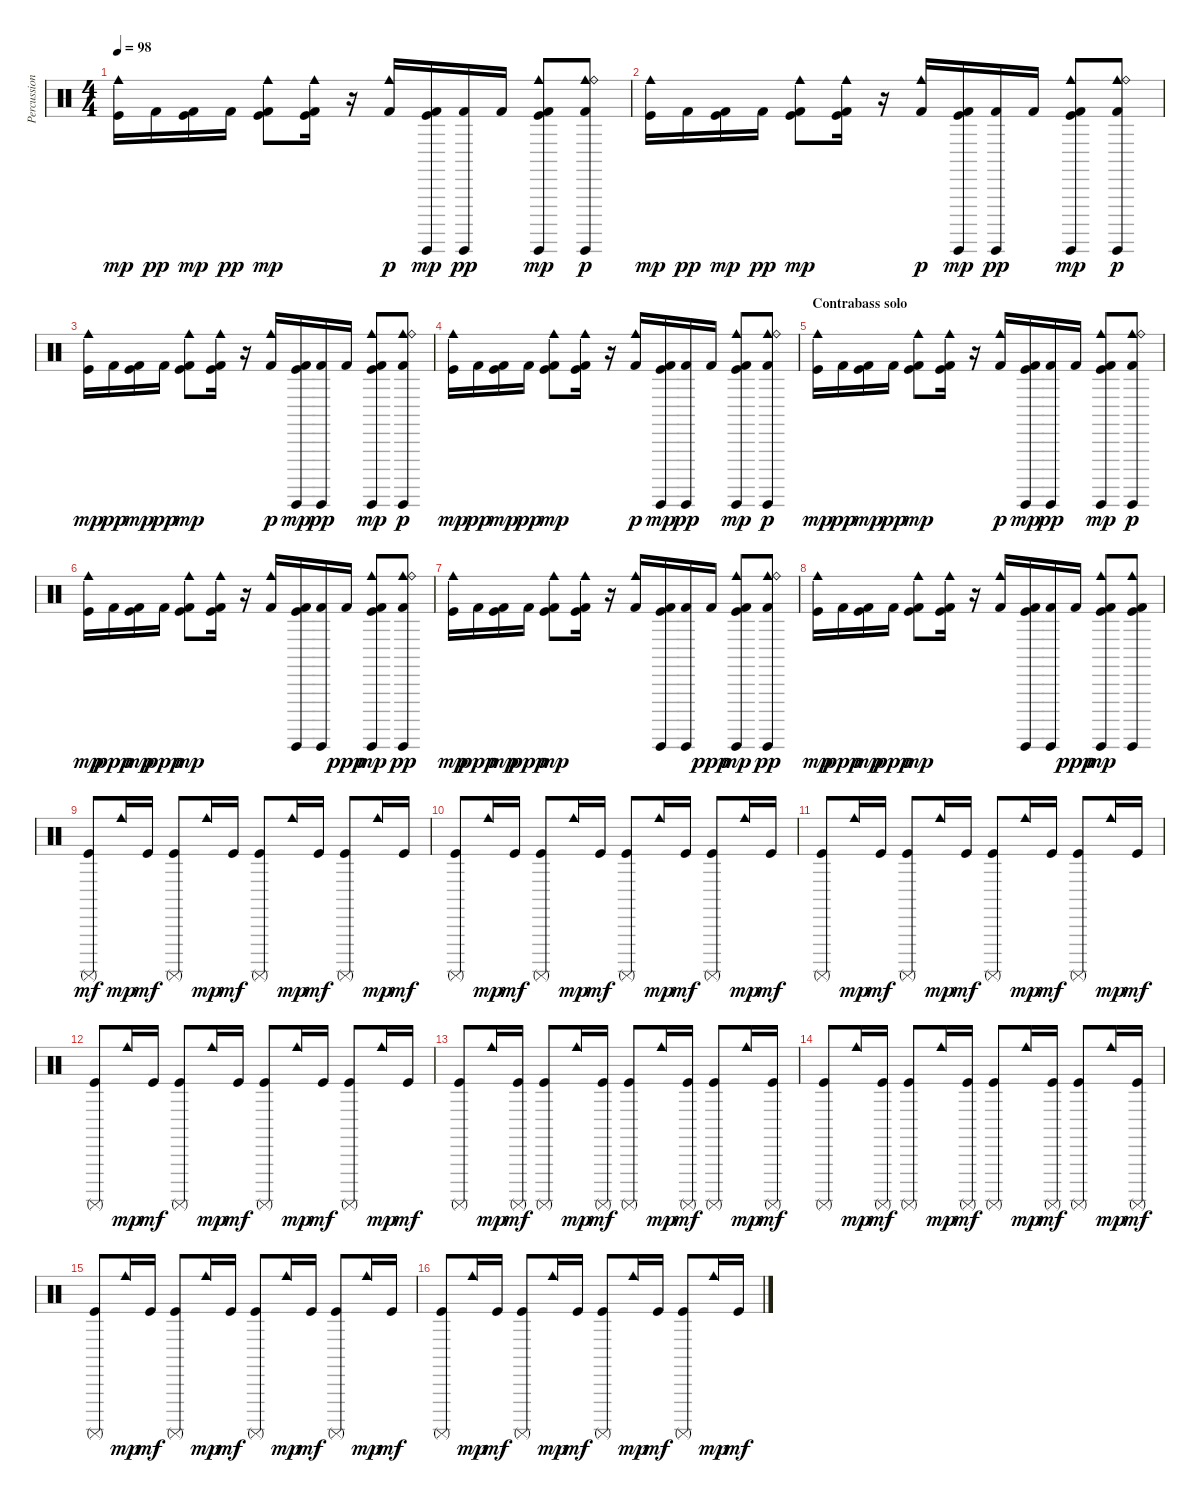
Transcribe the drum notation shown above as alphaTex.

\track ("Percussion" "Percussion") {instrument percussion}
\staff {score}
\articulation defaults
\ts (4 4)
\tempo 98
\clef neutral
\ks c
("Cowbell medium (hit)" "Kick (hit)").16{dy mp} "Kick (hit) 2".16{dy pp} ("Kick (hit) 2" "Kick (hit)").16{dy mp} "Kick (hit) 2".16{dy pp} ("Kick (hit) 2" "Cowbell medium (hit)" "Kick (hit)").8{dy mp} ("Kick (hit) 2" "Cowbell medium (hit)" "Kick (hit)").16 r.16 ("Kick (hit) 2" "Cowbell medium (hit)").16{dy p} ("Kick (hit) 2" "Guiro (hit)" "Kick (hit)").16{dy mp} ("Kick (hit) 2" "Guiro (hit)").16{dy pp} "Kick (hit) 2".16 ("Kick (hit) 2" "Cowbell medium (hit)" "Guiro (hit)" "Kick (hit)").8{dy mp} ("Kick (hit) 2" "Cowbell medium (hit)" "Guiro (hit)" "Ride (bell)").8{dy p} |
("Cowbell medium (hit)" "Kick (hit)").16{dy mp} "Kick (hit) 2".16{dy pp} ("Kick (hit) 2" "Kick (hit)").16{dy mp} "Kick (hit) 2".16{dy pp} ("Kick (hit) 2" "Cowbell medium (hit)" "Kick (hit)").8{dy mp} ("Kick (hit) 2" "Cowbell medium (hit)" "Kick (hit)").16 r.16 ("Kick (hit) 2" "Cowbell medium (hit)").16{dy p} ("Kick (hit) 2" "Guiro (hit)" "Kick (hit)").16{dy mp} ("Kick (hit) 2" "Guiro (hit)").16{dy pp} "Kick (hit) 2".16 ("Kick (hit) 2" "Cowbell medium (hit)" "Guiro (hit)" "Kick (hit)").8{dy mp} ("Kick (hit) 2" "Cowbell medium (hit)" "Guiro (hit)" "Ride (bell)").8{dy p} |
("Cowbell medium (hit)" "Kick (hit)").16{dy mp} "Kick (hit) 2".16{dy pp} ("Kick (hit) 2" "Kick (hit)").16{dy mp} "Kick (hit) 2".16{dy pp} ("Kick (hit) 2" "Cowbell medium (hit)" "Kick (hit)").8{dy mp} ("Kick (hit) 2" "Cowbell medium (hit)" "Kick (hit)").16 r.16 ("Kick (hit) 2" "Cowbell medium (hit)").16{dy p} ("Kick (hit) 2" "Guiro (hit)" "Kick (hit)").16{dy mp} ("Kick (hit) 2" "Guiro (hit)").16{dy pp} "Kick (hit) 2".16 ("Kick (hit) 2" "Cowbell medium (hit)" "Guiro (hit)" "Kick (hit)").8{dy mp} ("Kick (hit) 2" "Cowbell medium (hit)" "Guiro (hit)" "Ride (bell)").8{dy p} |
("Cowbell medium (hit)" "Kick (hit)").16{dy mp} "Kick (hit) 2".16{dy pp} ("Kick (hit) 2" "Kick (hit)").16{dy mp} "Kick (hit) 2".16{dy pp} ("Kick (hit) 2" "Cowbell medium (hit)" "Kick (hit)").8{dy mp} ("Kick (hit) 2" "Cowbell medium (hit)" "Kick (hit)").16 r.16 ("Kick (hit) 2" "Cowbell medium (hit)").16{dy p} ("Kick (hit) 2" "Guiro (hit)" "Kick (hit)").16{dy mp} ("Kick (hit) 2" "Guiro (hit)").16{dy pp} "Kick (hit) 2".16 ("Kick (hit) 2" "Cowbell medium (hit)" "Guiro (hit)" "Kick (hit)").8{dy mp} ("Kick (hit) 2" "Cowbell medium (hit)" "Guiro (hit)" "Ride (bell)").8{dy p} |
\section ("" "Contrabass solo")
("Cowbell medium (hit)" "Kick (hit)").16{dy mp} "Kick (hit) 2".16{dy pp} ("Kick (hit) 2" "Kick (hit)").16{dy mp} "Kick (hit) 2".16{dy pp} ("Kick (hit) 2" "Cowbell medium (hit)" "Kick (hit)").8{dy mp} ("Kick (hit) 2" "Cowbell medium (hit)" "Kick (hit)").16 r.16 ("Kick (hit) 2" "Cowbell medium (hit)").16{dy p} ("Kick (hit) 2" "Guiro (hit)" "Kick (hit)").16{dy mp} ("Kick (hit) 2" "Guiro (hit)").16{dy pp} "Kick (hit) 2".16 ("Kick (hit) 2" "Cowbell medium (hit)" "Guiro (hit)" "Kick (hit)").8{dy mp} ("Kick (hit) 2" "Cowbell medium (hit)" "Guiro (hit)" "Ride (bell)").8{dy p} |
("Cowbell medium (hit)" "Kick (hit)").16{dy mp} "Kick (hit) 2".16{dy ppp} ("Kick (hit) 2" "Kick (hit)").16{dy mp} "Kick (hit) 2".16{dy ppp} ("Kick (hit) 2" "Cowbell medium (hit)" "Kick (hit)").8{dy mp} ("Kick (hit) 2" "Cowbell medium (hit)" "Kick (hit)").16 r.16 ("Kick (hit) 2" "Cowbell medium (hit)").16 ("Kick (hit) 2" "Guiro (hit)" "Kick (hit)").16 ("Kick (hit) 2" "Guiro (hit)").16 "Kick (hit) 2".16{dy ppp} ("Kick (hit) 2" "Cowbell medium (hit)" "Guiro (hit)" "Kick (hit)").8{dy mp} ("Kick (hit) 2" "Cowbell medium (hit)" "Guiro (hit)" "Ride (bell)").8{dy pp} |
("Cowbell medium (hit)" "Kick (hit)").16{dy mp} "Kick (hit) 2".16{dy ppp} ("Kick (hit) 2" "Kick (hit)").16{dy mp} "Kick (hit) 2".16{dy ppp} ("Kick (hit) 2" "Cowbell medium (hit)" "Kick (hit)").8{dy mp} ("Kick (hit) 2" "Cowbell medium (hit)" "Kick (hit)").16 r.16 ("Kick (hit) 2" "Cowbell medium (hit)").16 ("Kick (hit) 2" "Guiro (hit)" "Kick (hit)").16 ("Kick (hit) 2" "Guiro (hit)").16 "Kick (hit) 2".16{dy ppp} ("Kick (hit) 2" "Cowbell medium (hit)" "Guiro (hit)" "Kick (hit)").8{dy mp} ("Kick (hit) 2" "Cowbell medium (hit)" "Guiro (hit)" "Ride (bell)").8{dy pp} |
("Cowbell medium (hit)" "Kick (hit)").16{dy mp} "Kick (hit) 2".16{dy ppp} ("Kick (hit) 2" "Kick (hit)").16{dy mp} "Kick (hit) 2".16{dy ppp} ("Kick (hit) 2" "Cowbell medium (hit)" "Kick (hit)").8{dy mp} ("Kick (hit) 2" "Cowbell medium (hit)" "Kick (hit)").16 r.16 ("Kick (hit) 2" "Cowbell medium (hit)").16 ("Kick (hit) 2" "Guiro (hit)" "Kick (hit)").16 ("Kick (hit) 2" "Guiro (hit)").16 "Kick (hit) 2".16{dy ppp} ("Kick (hit) 2" "Cowbell medium (hit)" "Guiro (hit)" "Kick (hit)").8{dy mp} ("Kick (hit) 2" "Cowbell medium (hit)" "Guiro (hit)" "Kick (hit)").8 |
("Surdo (mute)" "Kick (hit)").8{dy mf} "Cowbell medium (hit)".16{dy mp} "Kick (hit)".16{dy mf} ("Surdo (mute)" "Kick (hit)").8 "Cowbell medium (hit)".16{dy mp} "Kick (hit)".16{dy mf} ("Surdo (mute)" "Kick (hit)").8 "Cowbell medium (hit)".16{dy mp} "Kick (hit)".16{dy mf} ("Surdo (mute)" "Kick (hit)").8 "Cowbell medium (hit)".16{dy mp} "Kick (hit)".16{dy mf} |
("Surdo (mute)" "Kick (hit)").8 "Cowbell medium (hit)".16{dy mp} "Kick (hit)".16{dy mf} ("Surdo (mute)" "Kick (hit)").8 "Cowbell medium (hit)".16{dy mp} "Kick (hit)".16{dy mf} ("Surdo (mute)" "Kick (hit)").8 "Cowbell medium (hit)".16{dy mp} "Kick (hit)".16{dy mf} ("Surdo (mute)" "Kick (hit)").8 "Cowbell medium (hit)".16{dy mp} "Kick (hit)".16{dy mf} |
("Surdo (mute)" "Kick (hit)").8 "Cowbell medium (hit)".16{dy mp} "Kick (hit)".16{dy mf} ("Surdo (mute)" "Kick (hit)").8 "Cowbell medium (hit)".16{dy mp} "Kick (hit)".16{dy mf} ("Surdo (mute)" "Kick (hit)").8 "Cowbell medium (hit)".16{dy mp} "Kick (hit)".16{dy mf} ("Surdo (mute)" "Kick (hit)").8 "Cowbell medium (hit)".16{dy mp} "Kick (hit)".16{dy mf} |
("Surdo (mute)" "Kick (hit)").8 "Cowbell medium (hit)".16{dy mp} "Kick (hit)".16{dy mf} ("Surdo (mute)" "Kick (hit)").8 "Cowbell medium (hit)".16{dy mp} "Kick (hit)".16{dy mf} ("Surdo (mute)" "Kick (hit)").8 "Cowbell medium (hit)".16{dy mp} "Kick (hit)".16{dy mf} ("Surdo (mute)" "Kick (hit)").8 "Cowbell medium (hit)".16{dy mp} "Kick (hit)".16{dy mf} |
("Surdo (mute)" "Kick (hit)").8 "Cowbell medium (hit)".16{dy mp} ("Surdo (mute)" "Kick (hit)").16{dy mf} ("Surdo (mute)" "Kick (hit)").8 "Cowbell medium (hit)".16{dy mp} ("Surdo (mute)" "Kick (hit)").16{dy mf} ("Surdo (mute)" "Kick (hit)").8 "Cowbell medium (hit)".16{dy mp} ("Surdo (mute)" "Kick (hit)").16{dy mf} ("Surdo (mute)" "Kick (hit)").8 "Cowbell medium (hit)".16{dy mp} ("Surdo (mute)" "Kick (hit)").16{dy mf} |
("Surdo (mute)" "Kick (hit)").8 "Cowbell medium (hit)".16{dy mp} ("Surdo (mute)" "Kick (hit)").16{dy mf} ("Surdo (mute)" "Kick (hit)").8 "Cowbell medium (hit)".16{dy mp} ("Surdo (mute)" "Kick (hit)").16{dy mf} ("Surdo (mute)" "Kick (hit)").8 "Cowbell medium (hit)".16{dy mp} ("Surdo (mute)" "Kick (hit)").16{dy mf} ("Surdo (mute)" "Kick (hit)").8 "Cowbell medium (hit)".16{dy mp} ("Surdo (mute)" "Kick (hit)").16{dy mf} |
("Surdo (mute)" "Kick (hit)").8 "Cowbell medium (hit)".16{dy mp} "Kick (hit)".16{dy mf} ("Surdo (mute)" "Kick (hit)").8 "Cowbell medium (hit)".16{dy mp} "Kick (hit)".16{dy mf} ("Surdo (mute)" "Kick (hit)").8 "Cowbell medium (hit)".16{dy mp} "Kick (hit)".16{dy mf} ("Surdo (mute)" "Kick (hit)").8 "Cowbell medium (hit)".16{dy mp} "Kick (hit)".16{dy mf} |
("Surdo (mute)" "Kick (hit)").8 "Cowbell medium (hit)".16{dy mp} "Kick (hit)".16{dy mf} ("Surdo (mute)" "Kick (hit)").8 "Cowbell medium (hit)".16{dy mp} "Kick (hit)".16{dy mf} ("Surdo (mute)" "Kick (hit)").8 "Cowbell medium (hit)".16{dy mp} "Kick (hit)".16{dy mf} ("Surdo (mute)" "Kick (hit)").8 "Cowbell medium (hit)".16{dy mp} "Kick (hit)".16{dy mf}
